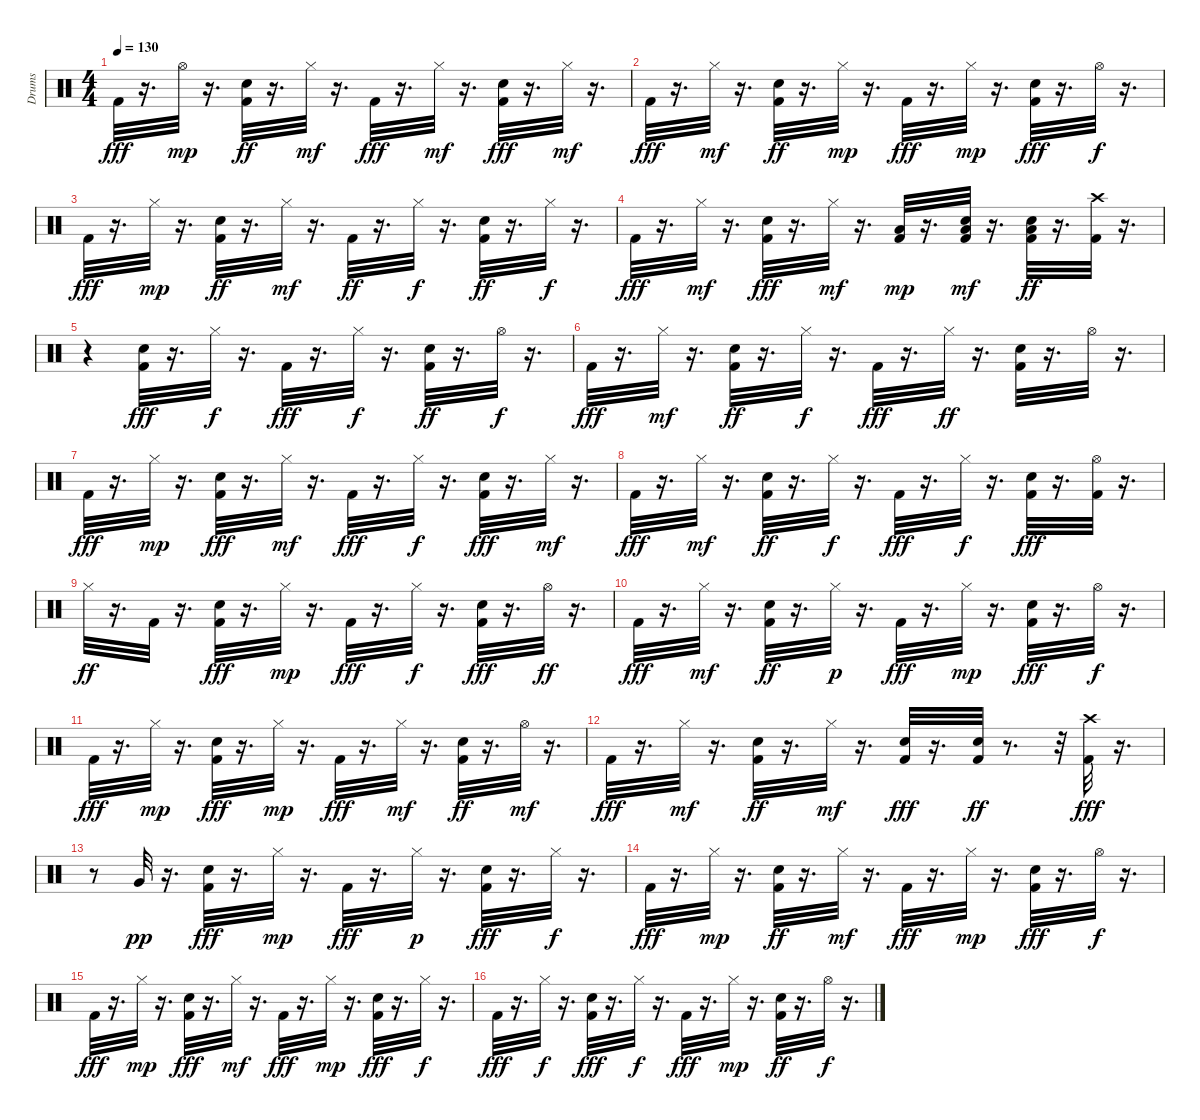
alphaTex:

\track ("Drums               " "Drums     ") {instrument percussion}
\staff {score}
\articulation defaults
\ts (4 4)
\tempo 130
\clef neutral
\ks c "Kick (hit) 2".32{dy fff}
r.16{d} "Hi-Hat (open)".32{dy mp} r.16{d} ("Kick (hit) 2" "Snare (hit) 2").32{dy ff} r.16{d} "Hi-Hat (closed)".32{dy mf} r.16{d} "Kick (hit) 2".32{dy fff} r.16{d} "Hi-Hat (closed)".32{dy mf} r.16{d} ("Kick (hit) 2" "Snare (hit) 2").32{dy fff} r.16{d} "Hi-Hat (closed)".32{dy mf} r.16{d} |
"Kick (hit) 2".32{dy fff} r.16{d} "Hi-Hat (closed)".32{dy mf} r.16{d} ("Kick (hit) 2" "Snare (hit) 2").32{dy ff} r.16{d} "Hi-Hat (closed)".32{dy mp} r.16{d} "Kick (hit) 2".32{dy fff} r.16{d} "Hi-Hat (closed)".32{dy mp} r.16{d} ("Kick (hit) 2" "Snare (hit) 2").32{dy fff} r.16{d} "Hi-Hat (open)".32{dy f} r.16{d} |
"Kick (hit) 2".32{dy fff} r.16{d} "Hi-Hat (closed)".32{dy mp} r.16{d} ("Kick (hit) 2" "Snare (hit) 2").32{dy ff} r.16{d} "Hi-Hat (closed)".32{dy mf} r.16{d} "Kick (hit) 2".32{dy ff} r.16{d} "Hi-Hat (closed)".32{dy f} r.16{d} ("Kick (hit) 2" "Snare (hit) 2").32{dy ff} r.16{d} "Hi-Hat (closed)".32{dy f} r.16{d} |
"Kick (hit) 2".32{dy fff} r.16{d} "Hi-Hat (closed)".32{dy mf} r.16{d} ("Kick (hit) 2" "Snare (hit) 2").32{dy fff} r.16{d} "Hi-Hat (closed)".32{dy mf} r.16{d} ("Kick (hit) 2" "Low Floor Tom (hit)").32{dy mp} r.16{d} ("Kick (hit) 2" "Snare (hit) 2" "Low Floor Tom (hit)").32{dy mf} r.16{d} ("Kick (hit) 2" "Snare (hit) 2" "Low Floor Tom (hit)").32{dy ff} r.16{d} ("Kick (hit) 2" "Crash high (hit)").32 r.16{d} |
r.4 ("Kick (hit) 2" "Snare (hit) 2").32{dy fff} r.16{d} "Hi-Hat (closed)".32{dy f} r.16{d} "Kick (hit) 2".32{dy fff} r.16{d} "Hi-Hat (closed)".32{dy f} r.16{d} ("Kick (hit) 2" "Snare (hit) 2").32{dy ff} r.16{d} "Hi-Hat (open)".32{dy f} r.16{d} |
"Kick (hit) 2".32{dy fff} r.16{d} "Hi-Hat (closed)".32{dy mf} r.16{d} ("Kick (hit) 2" "Snare (hit) 2").32{dy ff} r.16{d} "Hi-Hat (closed)".32{dy f} r.16{d} "Kick (hit) 2".32{dy fff} r.16{d} "Hi-Hat (closed)".32{dy ff} r.16{d} ("Kick (hit) 2" "Snare (hit) 2").32 r.16{d} "Hi-Hat (open)".32 r.16{d} |
"Kick (hit) 2".32{dy fff} r.16{d} "Hi-Hat (closed)".32{dy mp} r.16{d} ("Kick (hit) 2" "Snare (hit) 2").32{dy fff} r.16{d} "Hi-Hat (closed)".32{dy mf} r.16{d} "Kick (hit) 2".32{dy fff} r.16{d} "Hi-Hat (closed)".32{dy f} r.16{d} ("Kick (hit) 2" "Snare (hit) 2").32{dy fff} r.16{d} "Hi-Hat (closed)".32{dy mf} r.16{d} |
"Kick (hit) 2".32{dy fff} r.16{d} "Hi-Hat (closed)".32{dy mf} r.16{d} ("Kick (hit) 2" "Snare (hit) 2").32{dy ff} r.16{d} "Hi-Hat (closed)".32{dy f} r.16{d} "Kick (hit) 2".32{dy fff} r.16{d} "Hi-Hat (closed)".32{dy f} r.16{d} ("Kick (hit) 2" "Snare (hit) 2").32{dy fff} r.16{d} ("Kick (hit) 2" "Hi-Hat (open)").32 r.16{d} |
"Hi-Hat (closed)".32{dy ff} r.16{d} "Kick (hit) 2".32 r.16{d} ("Kick (hit) 2" "Snare (hit) 2").32{dy fff} r.16{d} "Hi-Hat (closed)".32{dy mp} r.16{d} "Kick (hit) 2".32{dy fff} r.16{d} "Hi-Hat (closed)".32{dy f} r.16{d} ("Kick (hit) 2" "Snare (hit) 2").32{dy fff} r.16{d} "Hi-Hat (open)".32{dy ff} r.16{d} |
"Kick (hit) 2".32{dy fff} r.16{d} "Hi-Hat (closed)".32{dy mf} r.16{d} ("Kick (hit) 2" "Snare (hit) 2").32{dy ff} r.16{d} "Hi-Hat (closed)".32{dy p} r.16{d} "Kick (hit) 2".32{dy fff} r.16{d} "Hi-Hat (closed)".32{dy mp} r.16{d} ("Kick (hit) 2" "Snare (hit) 2").32{dy fff} r.16{d} "Hi-Hat (open)".32{dy f} r.16{d} |
"Kick (hit) 2".32{dy fff} r.16{d} "Hi-Hat (closed)".32{dy mp} r.16{d} ("Kick (hit) 2" "Snare (hit) 2").32{dy fff} r.16{d} "Hi-Hat (closed)".32{dy mp} r.16{d} "Kick (hit) 2".32{dy fff} r.16{d} "Hi-Hat (closed)".32{dy mf} r.16{d} ("Kick (hit) 2" "Snare (hit) 2").32{dy ff} r.16{d} "Hi-Hat (open)".32{dy mf} r.16{d} |
"Kick (hit) 2".32{dy fff} r.16{d} "Hi-Hat (closed)".32{dy mf} r.16{d} ("Kick (hit) 2" "Snare (hit) 2").32{dy ff} r.16{d} "Hi-Hat (closed)".32{dy mf} r.16{d} ("Kick (hit) 2" "Snare (hit) 2").32{dy fff} r.16{d} ("Kick (hit) 2" "Snare (hit) 2").32{dy ff} r.8{d} r.32 ("Kick (hit) 2" "Crash high (hit)").32{dy fff} r.16{d} |
r.8 "Very Low Tom (hit)".32{dy pp} r.16{d} ("Kick (hit) 2" "Snare (hit) 2").32{dy fff} r.16{d} "Hi-Hat (closed)".32{dy mp} r.16{d} "Kick (hit) 2".32{dy fff} r.16{d} "Hi-Hat (closed)".32{dy p} r.16{d} ("Kick (hit) 2" "Snare (hit) 2").32{dy fff} r.16{d} "Hi-Hat (closed)".32{dy f} r.16{d} |
"Kick (hit) 2".32{dy fff} r.16{d} "Hi-Hat (closed)".32{dy mp} r.16{d} ("Kick (hit) 2" "Snare (hit) 2").32{dy ff} r.16{d} "Hi-Hat (closed)".32{dy mf} r.16{d} "Kick (hit) 2".32{dy fff} r.16{d} "Hi-Hat (closed)".32{dy mp} r.16{d} ("Kick (hit) 2" "Snare (hit) 2").32{dy fff} r.16{d} "Hi-Hat (open)".32{dy f} r.16{d} |
"Kick (hit) 2".32{dy fff} r.16{d} "Hi-Hat (closed)".32{dy mp} r.16{d} ("Kick (hit) 2" "Snare (hit) 2").32{dy fff} r.16{d} "Hi-Hat (closed)".32{dy mf} r.16{d} "Kick (hit) 2".32{dy fff} r.16{d} "Hi-Hat (closed)".32{dy mp} r.16{d} ("Kick (hit) 2" "Snare (hit) 2").32{dy fff} r.16{d} "Hi-Hat (closed)".32{dy f} r.16{d} |
"Kick (hit) 2".32{dy fff} r.16{d} "Hi-Hat (closed)".32{dy f} r.16{d} ("Kick (hit) 2" "Snare (hit) 2").32{dy fff} r.16{d} "Hi-Hat (closed)".32{dy f} r.16{d} "Kick (hit) 2".32{dy fff} r.16{d} "Hi-Hat (closed)".32{dy mp} r.16{d} ("Kick (hit) 2" "Snare (hit) 2").32{dy ff} r.16{d} "Hi-Hat (open)".32{dy f} r.16{d}
